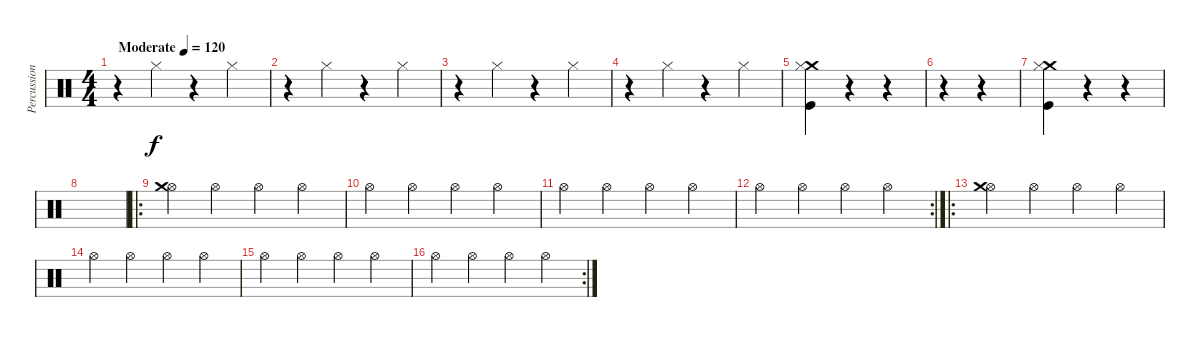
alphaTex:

\track ("Percussions" "Percussion") {instrument percussion}
\staff {score}
\articulation defaults
\ts (4 4)
\tempo (120 "Moderate")
\clef neutral
\ks c
r.4{dy f} "Hi-Hat (closed)".4 r.4 "Hi-Hat (closed)".4 |
r.4 "Hi-Hat (closed)".4 r.4 "Hi-Hat (closed)".4 |
r.4 "Hi-Hat (closed)".4 r.4 "Hi-Hat (closed)".4 |
r.4 "Hi-Hat (closed)".4 r.4 "Hi-Hat (closed)".4 |
("Crash medium (hit)" "Hi-Hat (closed)" "Kick (hit)").4 r.4 r.4 |
r.4 r.4 |
("Crash medium (hit)" "Hi-Hat (closed)" "Kick (hit)").4 r.4 r.4 |
|
\ro
("Hi-Hat (open)" "Crash medium (hit)").4 "Hi-Hat (open)".4 "Hi-Hat (open)".4 "Hi-Hat (open)".4 |
"Hi-Hat (open)".4 "Hi-Hat (open)".4 "Hi-Hat (open)".4 "Hi-Hat (open)".4 |
"Hi-Hat (open)".4 "Hi-Hat (open)".4 "Hi-Hat (open)".4 "Hi-Hat (open)".4 |
\rc 2 "Hi-Hat (open)".4 "Hi-Hat (open)".4 "Hi-Hat (open)".4 "Hi-Hat (open)".4
|
\ro
("Hi-Hat (open)" "Crash medium (hit)").4 "Hi-Hat (open)".4 "Hi-Hat (open)".4 "Hi-Hat (open)".4 |
"Hi-Hat (open)".4 "Hi-Hat (open)".4 "Hi-Hat (open)".4 "Hi-Hat (open)".4 |
"Hi-Hat (open)".4 "Hi-Hat (open)".4 "Hi-Hat (open)".4 "Hi-Hat (open)".4 |
\rc 2 "Hi-Hat (open)".4 "Hi-Hat (open)".4 "Hi-Hat (open)".4 "Hi-Hat (open)".4
